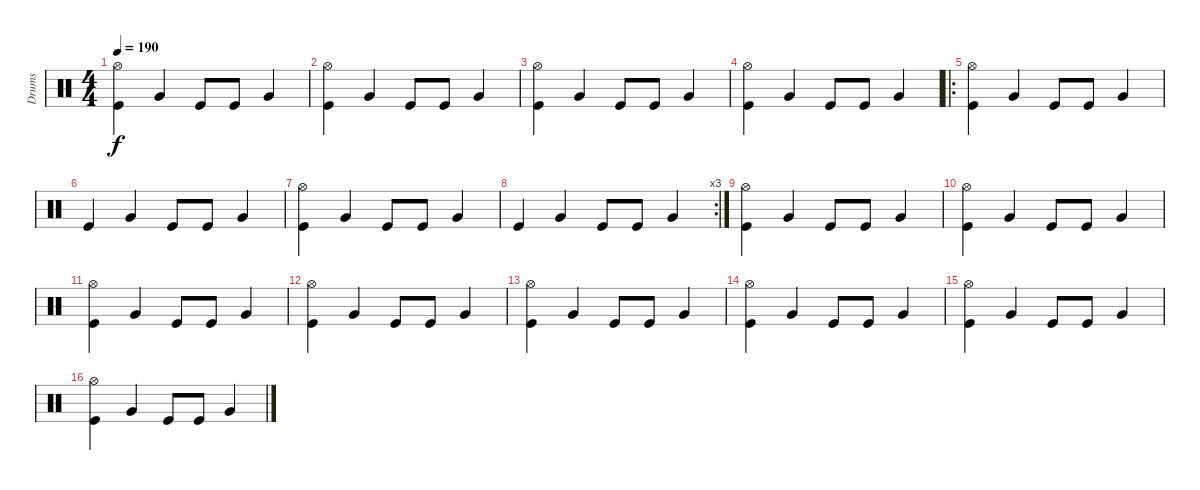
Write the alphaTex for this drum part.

\track ("Drums" "Drums") {instrument percussion}
\staff {score}
\articulation defaults
\ts (4 4)
\tempo 190
\clef neutral
\ks c
("Hi-Hat (open)" "Kick (hit)").4{dy f} "Very Low Tom (hit)".4 "Kick (hit)".8 "Kick (hit)".8 "Very Low Tom (hit)".4 |
("Hi-Hat (open)" "Kick (hit)").4 "Very Low Tom (hit)".4 "Kick (hit)".8 "Kick (hit)".8 "Very Low Tom (hit)".4 |
("Hi-Hat (open)" "Kick (hit)").4 "Very Low Tom (hit)".4 "Kick (hit)".8 "Kick (hit)".8 "Very Low Tom (hit)".4 |
("Hi-Hat (open)" "Kick (hit)").4 "Very Low Tom (hit)".4 "Kick (hit)".8 "Kick (hit)".8 "Very Low Tom (hit)".4 |
\ro
("Hi-Hat (open)" "Kick (hit)").4 "Very Low Tom (hit)".4 "Kick (hit)".8 "Kick (hit)".8 "Very Low Tom (hit)".4 |
"Kick (hit)".4 "Very Low Tom (hit)".4 "Kick (hit)".8 "Kick (hit)".8 "Very Low Tom (hit)".4 |
("Hi-Hat (open)" "Kick (hit)").4 "Very Low Tom (hit)".4 "Kick (hit)".8 "Kick (hit)".8 "Very Low Tom (hit)".4 |
\rc 3 "Kick (hit)".4 "Very Low Tom (hit)".4 "Kick (hit)".8 "Kick (hit)".8 "Very Low Tom (hit)".4
|
("Hi-Hat (open)" "Kick (hit)").4 "Very Low Tom (hit)".4 "Kick (hit)".8 "Kick (hit)".8 "Very Low Tom (hit)".4 |
("Hi-Hat (open)" "Kick (hit)").4 "Very Low Tom (hit)".4 "Kick (hit)".8 "Kick (hit)".8 "Very Low Tom (hit)".4 |
("Hi-Hat (open)" "Kick (hit)").4 "Very Low Tom (hit)".4 "Kick (hit)".8 "Kick (hit)".8 "Very Low Tom (hit)".4 |
("Hi-Hat (open)" "Kick (hit)").4 "Very Low Tom (hit)".4 "Kick (hit)".8 "Kick (hit)".8 "Very Low Tom (hit)".4 |
("Hi-Hat (open)" "Kick (hit)").4 "Very Low Tom (hit)".4 "Kick (hit)".8 "Kick (hit)".8 "Very Low Tom (hit)".4 |
("Hi-Hat (open)" "Kick (hit)").4 "Very Low Tom (hit)".4 "Kick (hit)".8 "Kick (hit)".8 "Very Low Tom (hit)".4 |
("Hi-Hat (open)" "Kick (hit)").4 "Very Low Tom (hit)".4 "Kick (hit)".8 "Kick (hit)".8 "Very Low Tom (hit)".4 |
("Hi-Hat (open)" "Kick (hit)").4 "Very Low Tom (hit)".4 "Kick (hit)".8 "Kick (hit)".8 "Very Low Tom (hit)".4
